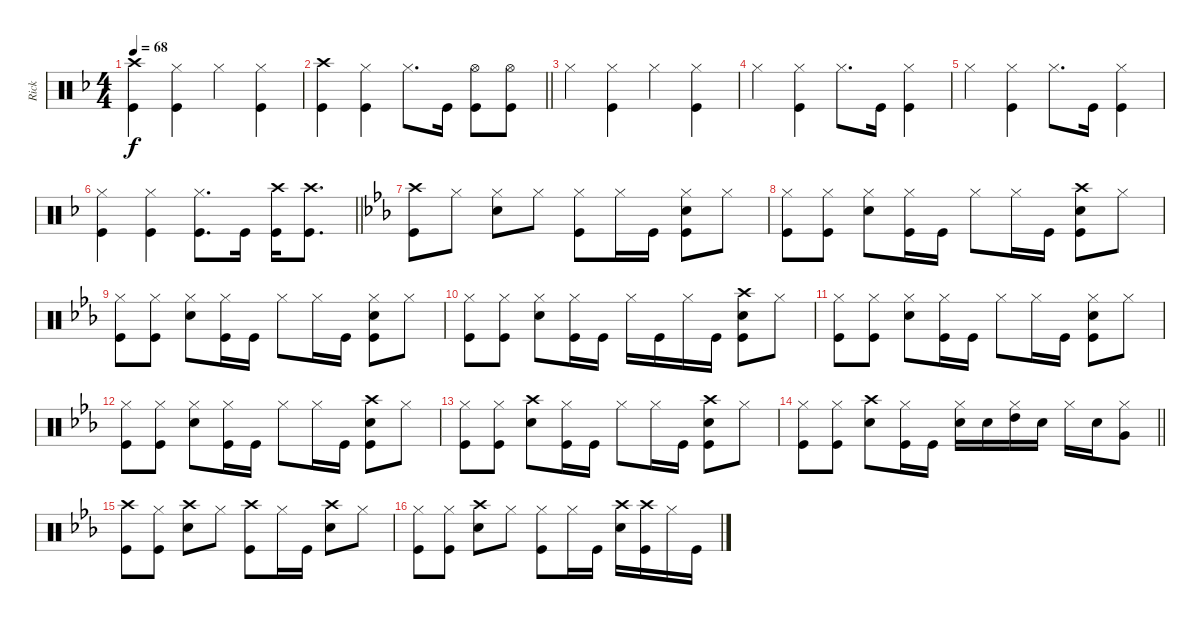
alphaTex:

\track ("Rick " "Rick ") {instrument percussion}
\staff {score}
\articulation defaults
\ts (4 4)
\tempo 68
\clef neutral
\ks dminor
("Crash high (hit)" "Kick (hit)").4{dy f} ("Hi-Hat (closed)" "Kick (hit)").4 "Hi-Hat (closed)".4 ("Hi-Hat (closed)" "Kick (hit)").4 |
\barLineRight lightlight
("Crash high (hit)" "Kick (hit)").4 ("Hi-Hat (closed)" "Kick (hit)").4 "Hi-Hat (closed)".8{d} "Kick (hit)".16 ("Hi-Hat (open)" "Kick (hit)").8 ("Hi-Hat (open)" "Kick (hit)").8 |
"Hi-Hat (closed)".4 ("Hi-Hat (closed)" "Kick (hit)").4 "Hi-Hat (closed)".4 ("Hi-Hat (closed)" "Kick (hit)").4 |
"Hi-Hat (closed)".4 ("Hi-Hat (closed)" "Kick (hit)").4 "Hi-Hat (closed)".8{d} "Kick (hit)".16 ("Hi-Hat (closed)" "Kick (hit)").4 |
"Hi-Hat (closed)".4 ("Hi-Hat (closed)" "Kick (hit)").4 "Hi-Hat (closed)".8{d} "Kick (hit)".16 ("Hi-Hat (closed)" "Kick (hit)").4 |
\barLineRight lightlight
("Hi-Hat (closed)" "Kick (hit)").4 ("Hi-Hat (closed)" "Kick (hit)").4 ("Hi-Hat (closed)" "Kick (hit)").8{d} "Kick (hit)".16 ("Crash high (hit)" "Kick (hit)").16 ("Crash high (hit)" "Kick (hit)").8{d} |
\ks eb
("Crash high (hit)" "Kick (hit)").8 "Hi-Hat (closed)".8 ("Hi-Hat (closed)" "Snare (hit) 2").8 "Hi-Hat (closed)".8 ("Hi-Hat (closed)" "Kick (hit)").8 "Hi-Hat (closed)".16 "Kick (hit)".16 ("Hi-Hat (closed)" "Snare (hit) 2" "Kick (hit)").8 "Hi-Hat (closed)".8 |
("Hi-Hat (closed)" "Kick (hit)").8 ("Hi-Hat (closed)" "Kick (hit)").8 ("Hi-Hat (closed)" "Snare (hit) 2").8 ("Hi-Hat (closed)" "Kick (hit)").16 "Kick (hit)".16 "Hi-Hat (closed)".8 "Hi-Hat (closed)".16 "Kick (hit)".16 ("Crash high (hit)" "Snare (hit) 2" "Kick (hit)").8 "Hi-Hat (closed)".8 |
("Hi-Hat (closed)" "Kick (hit)").8 ("Hi-Hat (closed)" "Kick (hit)").8 ("Hi-Hat (closed)" "Snare (hit) 2").8 ("Hi-Hat (closed)" "Kick (hit)").16 "Kick (hit)".16 "Hi-Hat (closed)".8 "Hi-Hat (closed)".16 "Kick (hit)".16 ("Hi-Hat (closed)" "Snare (hit) 2" "Kick (hit)").8 "Hi-Hat (closed)".8 |
("Hi-Hat (closed)" "Kick (hit)").8 ("Hi-Hat (closed)" "Kick (hit)").8 ("Hi-Hat (closed)" "Snare (hit) 2").8 ("Hi-Hat (closed)" "Kick (hit)").16 "Kick (hit)".16 "Hi-Hat (closed)".16 "Kick (hit)".16 "Hi-Hat (closed)".16 "Kick (hit)".16 ("Crash high (hit)" "Snare (hit) 2" "Kick (hit)").8 "Hi-Hat (closed)".8 |
("Hi-Hat (closed)" "Kick (hit)").8 ("Hi-Hat (closed)" "Kick (hit)").8 ("Hi-Hat (closed)" "Snare (hit) 2").8 ("Hi-Hat (closed)" "Kick (hit)").16 "Kick (hit)".16 "Hi-Hat (closed)".8 "Hi-Hat (closed)".16 "Kick (hit)".16 ("Hi-Hat (closed)" "Snare (hit) 2" "Kick (hit)").8 "Hi-Hat (closed)".8 |
("Hi-Hat (closed)" "Kick (hit)").8 ("Hi-Hat (closed)" "Kick (hit)").8 ("Hi-Hat (closed)" "Snare (hit) 2").8 ("Hi-Hat (closed)" "Kick (hit)").16 "Kick (hit)".16 "Hi-Hat (closed)".8 "Hi-Hat (closed)".16 "Kick (hit)".16 ("Crash high (hit)" "Snare (hit) 2" "Kick (hit)").8 "Hi-Hat (closed)".8 |
("Hi-Hat (closed)" "Kick (hit)").8 ("Hi-Hat (closed)" "Kick (hit)").8 ("Crash high (hit)" "Snare (hit) 2").8 ("Hi-Hat (closed)" "Kick (hit)").16 "Kick (hit)".16 "Hi-Hat (closed)".8 "Hi-Hat (closed)".16 "Kick (hit)".16 ("Crash high (hit)" "Snare (hit) 2" "Kick (hit)").8 "Hi-Hat (closed)".8 |
\barLineRight lightlight
("Hi-Hat (closed)" "Kick (hit)").8 ("Hi-Hat (closed)" "Kick (hit)").8 ("Crash high (hit)" "Snare (hit) 2").8 ("Hi-Hat (closed)" "Kick (hit)").16 "Kick (hit)".16 ("Hi-Hat (closed)" "Snare (hit) 2").16 "Snare (hit) 2".16 ("Hi-Hat (closed)" "High Tom (hit)").16 "Snare (hit) 2".16 "Hi-Hat (closed)".16 "Snare (hit) 2".16 ("Hi-Hat (closed)" "Very Low Tom (hit)").8 |
("Crash high (hit)" "Kick (hit)").8 ("Hi-Hat (closed)" "Kick (hit)").8 ("Crash high (hit)" "Snare (hit) 2").8 "Hi-Hat (closed)".8 ("Crash high (hit)" "Kick (hit)").8 "Hi-Hat (closed)".16 "Kick (hit)".16 ("Crash high (hit)" "Snare (hit) 2").8 "Hi-Hat (closed)".8 |
("Hi-Hat (closed)" "Kick (hit)").8 ("Hi-Hat (closed)" "Kick (hit)").8 ("Crash high (hit)" "Snare (hit) 2").8 "Hi-Hat (closed)".8 ("Hi-Hat (closed)" "Kick (hit)").8 "Hi-Hat (closed)".16 "Kick (hit)".16 ("Crash high (hit)" "Snare (hit) 2").16 ("Crash high (hit)" "Kick (hit)").16 "Hi-Hat (closed)".16 "Kick (hit)".16
